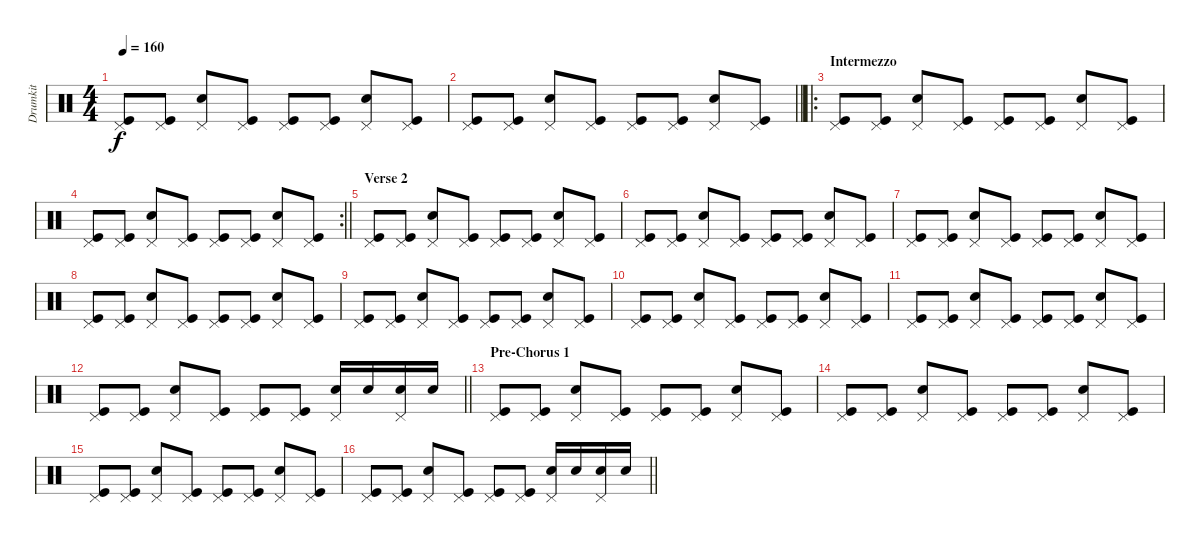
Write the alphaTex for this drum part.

\track ("Drumkit" "Drumkit") {instrument percussion}
\staff {score}
\articulation defaults
\ts (4 4)
\tempo 160
\clef neutral
\ks c
("Pedal Hi-Hat (hit)" "Kick (hit)").8{dy f} ("Pedal Hi-Hat (hit)" "Kick (hit)").8 ("Pedal Hi-Hat (hit)" "Snare (hit) 2").8 ("Pedal Hi-Hat (hit)" "Kick (hit)").8 ("Pedal Hi-Hat (hit)" "Kick (hit)").8 ("Pedal Hi-Hat (hit)" "Kick (hit)").8 ("Pedal Hi-Hat (hit)" "Snare (hit) 2").8 ("Pedal Hi-Hat (hit)" "Kick (hit)").8 |
\barLineRight lightlight
("Pedal Hi-Hat (hit)" "Kick (hit)").8 ("Pedal Hi-Hat (hit)" "Kick (hit)").8 ("Pedal Hi-Hat (hit)" "Snare (hit) 2").8 ("Pedal Hi-Hat (hit)" "Kick (hit)").8 ("Pedal Hi-Hat (hit)" "Kick (hit)").8 ("Pedal Hi-Hat (hit)" "Kick (hit)").8 ("Pedal Hi-Hat (hit)" "Snare (hit) 2").8 ("Pedal Hi-Hat (hit)" "Kick (hit)").8 |
\ro
\section ("" "Intermezzo")
("Pedal Hi-Hat (hit)" "Kick (hit)").8 ("Pedal Hi-Hat (hit)" "Kick (hit)").8 ("Pedal Hi-Hat (hit)" "Snare (hit) 2").8 ("Pedal Hi-Hat (hit)" "Kick (hit)").8 ("Pedal Hi-Hat (hit)" "Kick (hit)").8 ("Pedal Hi-Hat (hit)" "Kick (hit)").8 ("Pedal Hi-Hat (hit)" "Snare (hit) 2").8 ("Pedal Hi-Hat (hit)" "Kick (hit)").8 |
\rc 2
\barLineRight lightlight
("Pedal Hi-Hat (hit)" "Kick (hit)").8 ("Pedal Hi-Hat (hit)" "Kick (hit)").8 ("Pedal Hi-Hat (hit)" "Snare (hit) 2").8 ("Pedal Hi-Hat (hit)" "Kick (hit)").8 ("Pedal Hi-Hat (hit)" "Kick (hit)").8 ("Pedal Hi-Hat (hit)" "Kick (hit)").8 ("Pedal Hi-Hat (hit)" "Snare (hit) 2").8 ("Pedal Hi-Hat (hit)" "Kick (hit)").8 |
\section ("" "Verse 2")
("Pedal Hi-Hat (hit)" "Kick (hit)").8 ("Pedal Hi-Hat (hit)" "Kick (hit)").8 ("Pedal Hi-Hat (hit)" "Snare (hit) 2").8 ("Pedal Hi-Hat (hit)" "Kick (hit)").8 ("Pedal Hi-Hat (hit)" "Kick (hit)").8 ("Pedal Hi-Hat (hit)" "Kick (hit)").8 ("Pedal Hi-Hat (hit)" "Snare (hit) 2").8 ("Pedal Hi-Hat (hit)" "Kick (hit)").8 |
("Pedal Hi-Hat (hit)" "Kick (hit)").8 ("Pedal Hi-Hat (hit)" "Kick (hit)").8 ("Pedal Hi-Hat (hit)" "Snare (hit) 2").8 ("Pedal Hi-Hat (hit)" "Kick (hit)").8 ("Pedal Hi-Hat (hit)" "Kick (hit)").8 ("Pedal Hi-Hat (hit)" "Kick (hit)").8 ("Pedal Hi-Hat (hit)" "Snare (hit) 2").8 ("Pedal Hi-Hat (hit)" "Kick (hit)").8 |
("Pedal Hi-Hat (hit)" "Kick (hit)").8 ("Pedal Hi-Hat (hit)" "Kick (hit)").8 ("Pedal Hi-Hat (hit)" "Snare (hit) 2").8 ("Pedal Hi-Hat (hit)" "Kick (hit)").8 ("Pedal Hi-Hat (hit)" "Kick (hit)").8 ("Pedal Hi-Hat (hit)" "Kick (hit)").8 ("Pedal Hi-Hat (hit)" "Snare (hit) 2").8 ("Pedal Hi-Hat (hit)" "Kick (hit)").8 |
("Pedal Hi-Hat (hit)" "Kick (hit)").8 ("Pedal Hi-Hat (hit)" "Kick (hit)").8 ("Pedal Hi-Hat (hit)" "Snare (hit) 2").8 ("Pedal Hi-Hat (hit)" "Kick (hit)").8 ("Pedal Hi-Hat (hit)" "Kick (hit)").8 ("Pedal Hi-Hat (hit)" "Kick (hit)").8 ("Pedal Hi-Hat (hit)" "Snare (hit) 2").8 ("Pedal Hi-Hat (hit)" "Kick (hit)").8 |
("Pedal Hi-Hat (hit)" "Kick (hit)").8 ("Pedal Hi-Hat (hit)" "Kick (hit)").8 ("Pedal Hi-Hat (hit)" "Snare (hit) 2").8 ("Pedal Hi-Hat (hit)" "Kick (hit)").8 ("Pedal Hi-Hat (hit)" "Kick (hit)").8 ("Pedal Hi-Hat (hit)" "Kick (hit)").8 ("Pedal Hi-Hat (hit)" "Snare (hit) 2").8 ("Pedal Hi-Hat (hit)" "Kick (hit)").8 |
("Pedal Hi-Hat (hit)" "Kick (hit)").8 ("Pedal Hi-Hat (hit)" "Kick (hit)").8 ("Pedal Hi-Hat (hit)" "Snare (hit) 2").8 ("Pedal Hi-Hat (hit)" "Kick (hit)").8 ("Pedal Hi-Hat (hit)" "Kick (hit)").8 ("Pedal Hi-Hat (hit)" "Kick (hit)").8 ("Pedal Hi-Hat (hit)" "Snare (hit) 2").8 ("Pedal Hi-Hat (hit)" "Kick (hit)").8 |
("Pedal Hi-Hat (hit)" "Kick (hit)").8 ("Pedal Hi-Hat (hit)" "Kick (hit)").8 ("Pedal Hi-Hat (hit)" "Snare (hit) 2").8 ("Pedal Hi-Hat (hit)" "Kick (hit)").8 ("Pedal Hi-Hat (hit)" "Kick (hit)").8 ("Pedal Hi-Hat (hit)" "Kick (hit)").8 ("Pedal Hi-Hat (hit)" "Snare (hit) 2").8 ("Pedal Hi-Hat (hit)" "Kick (hit)").8 |
\barLineRight lightlight
("Pedal Hi-Hat (hit)" "Kick (hit)").8 ("Pedal Hi-Hat (hit)" "Kick (hit)").8 ("Pedal Hi-Hat (hit)" "Snare (hit) 2").8 ("Pedal Hi-Hat (hit)" "Kick (hit)").8 ("Pedal Hi-Hat (hit)" "Kick (hit)").8 ("Pedal Hi-Hat (hit)" "Kick (hit)").8 ("Pedal Hi-Hat (hit)" "Snare (hit) 2").16 "Snare (hit) 2".16 ("Pedal Hi-Hat (hit)" "Snare (hit) 2").16 "Snare (hit) 2".16 |
\section ("" "Pre-Chorus 1")
("Pedal Hi-Hat (hit)" "Kick (hit)").8 ("Pedal Hi-Hat (hit)" "Kick (hit)").8 ("Pedal Hi-Hat (hit)" "Snare (hit) 2").8 ("Pedal Hi-Hat (hit)" "Kick (hit)").8 ("Pedal Hi-Hat (hit)" "Kick (hit)").8 ("Pedal Hi-Hat (hit)" "Kick (hit)").8 ("Pedal Hi-Hat (hit)" "Snare (hit) 2").8 ("Pedal Hi-Hat (hit)" "Kick (hit)").8 |
("Pedal Hi-Hat (hit)" "Kick (hit)").8 ("Pedal Hi-Hat (hit)" "Kick (hit)").8 ("Pedal Hi-Hat (hit)" "Snare (hit) 2").8 ("Pedal Hi-Hat (hit)" "Kick (hit)").8 ("Pedal Hi-Hat (hit)" "Kick (hit)").8 ("Pedal Hi-Hat (hit)" "Kick (hit)").8 ("Pedal Hi-Hat (hit)" "Snare (hit) 2").8 ("Pedal Hi-Hat (hit)" "Kick (hit)").8 |
("Pedal Hi-Hat (hit)" "Kick (hit)").8 ("Pedal Hi-Hat (hit)" "Kick (hit)").8 ("Pedal Hi-Hat (hit)" "Snare (hit) 2").8 ("Pedal Hi-Hat (hit)" "Kick (hit)").8 ("Pedal Hi-Hat (hit)" "Kick (hit)").8 ("Pedal Hi-Hat (hit)" "Kick (hit)").8 ("Pedal Hi-Hat (hit)" "Snare (hit) 2").8 ("Pedal Hi-Hat (hit)" "Kick (hit)").8 |
\barLineRight lightlight
("Pedal Hi-Hat (hit)" "Kick (hit)").8 ("Pedal Hi-Hat (hit)" "Kick (hit)").8 ("Pedal Hi-Hat (hit)" "Snare (hit) 2").8 ("Pedal Hi-Hat (hit)" "Kick (hit)").8 ("Pedal Hi-Hat (hit)" "Kick (hit)").8 ("Pedal Hi-Hat (hit)" "Kick (hit)").8 ("Pedal Hi-Hat (hit)" "Snare (hit) 2").16 "Snare (hit) 2".16 ("Pedal Hi-Hat (hit)" "Snare (hit) 2").16 "Snare (hit) 2".16
